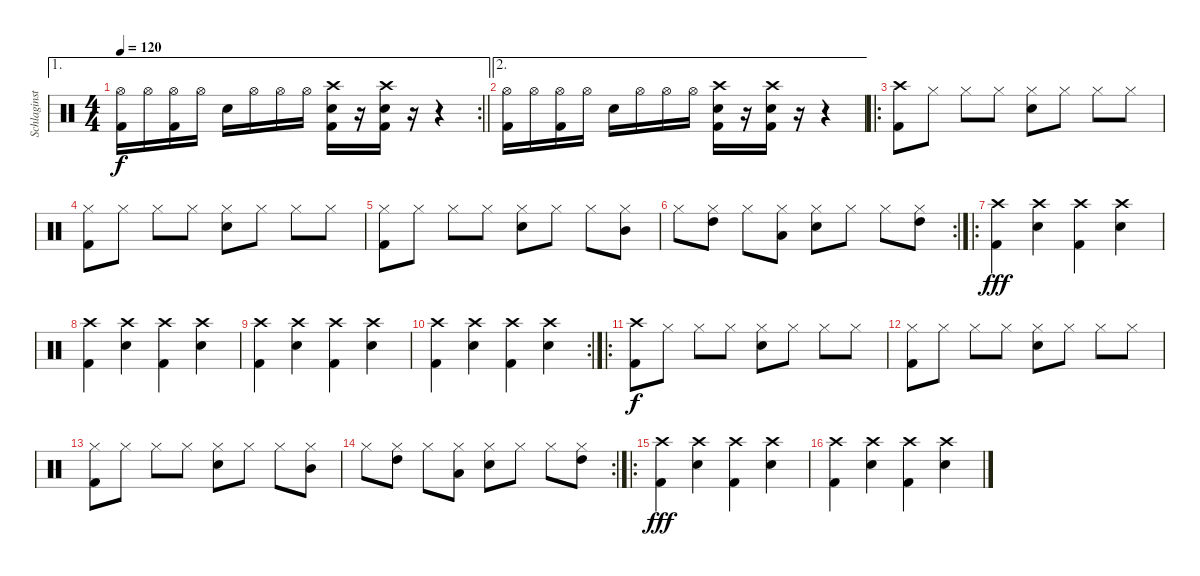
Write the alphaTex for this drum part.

\track ("Schlaginstrumente - Auswahl" "Schlaginst") {instrument percussion}
\staff {score}
\articulation defaults
\ae 1
\rc 2
\ts (4 4)
\tempo 120
\clef neutral
\barLineRight lightlight
\ks c
("Hi-Hat (open)" "Kick (hit) 2").16{dy f} "Hi-Hat (open)".16 ("Hi-Hat (open)" "Kick (hit) 2").16 "Hi-Hat (open)".16 "Electric Snare (hit)".16 "Hi-Hat (open)".16 "Hi-Hat (open)".16 "Hi-Hat (open)".16 ("Crash high (hit)" "Electric Snare (hit)" "Kick (hit) 2").16 r.16 ("Crash high (hit)" "Electric Snare (hit)" "Kick (hit) 2").16 r.16 r.4 |
\ae 2
("Hi-Hat (open)" "Kick (hit) 2").16 "Hi-Hat (open)".16 ("Hi-Hat (open)" "Kick (hit) 2").16 "Hi-Hat (open)".16 "Electric Snare (hit)".16 "Hi-Hat (open)".16 "Hi-Hat (open)".16 "Hi-Hat (open)".16 ("Crash high (hit)" "Electric Snare (hit)" "Kick (hit) 2").16 r.16 ("Crash high (hit)" "Electric Snare (hit)" "Kick (hit) 2").16 r.16 r.4 |
\ro
("Crash high (hit)" "Kick (hit) 2").8 "Hi-Hat (closed)".8 "Hi-Hat (closed)".8 "Hi-Hat (closed)".8 ("Hi-Hat (closed)" "Electric Snare (hit)").8 "Hi-Hat (closed)".8 "Hi-Hat (closed)".8 "Hi-Hat (closed)".8 |
("Hi-Hat (closed)" "Kick (hit) 2").8 "Hi-Hat (closed)".8 "Hi-Hat (closed)".8 "Hi-Hat (closed)".8 ("Hi-Hat (closed)" "Electric Snare (hit)").8 "Hi-Hat (closed)".8 "Hi-Hat (closed)".8 "Hi-Hat (closed)".8 |
("Hi-Hat (closed)" "Kick (hit) 2").8 "Hi-Hat (closed)".8 "Hi-Hat (closed)".8 "Hi-Hat (closed)".8 ("Hi-Hat (closed)" "Electric Snare (hit)").8 "Hi-Hat (closed)".8 "Hi-Hat (closed)".8 ("Hi-Hat (closed)" "Mid Tom (hit)").8 |
\rc 2 "Hi-Hat (closed)".8
("Hi-Hat (closed)" "High Tom (hit)").8 "Hi-Hat (closed)".8 ("Hi-Hat (closed)" "Low Tom (hit)").8 ("Hi-Hat (closed)" "Electric Snare (hit)").8 "Hi-Hat (closed)".8 "Hi-Hat (closed)".8 ("Hi-Hat (closed)" "High Tom (hit)").8 |
\ro
("Crash high (hit)" "Kick (hit) 2").4{dy fff volume 16} ("Crash high (hit)" "Electric Snare (hit)").4 ("Crash high (hit)" "Kick (hit) 2").4 ("Crash high (hit)" "Electric Snare (hit)").4 |
("Crash high (hit)" "Kick (hit) 2").4 ("Crash high (hit)" "Electric Snare (hit)").4 ("Crash high (hit)" "Kick (hit) 2").4 ("Crash high (hit)" "Electric Snare (hit)").4 |
("Crash high (hit)" "Kick (hit) 2").4 ("Crash high (hit)" "Electric Snare (hit)").4 ("Crash high (hit)" "Kick (hit) 2").4 ("Crash high (hit)" "Electric Snare (hit)").4 |
\rc 2
("Crash high (hit)" "Kick (hit) 2").4 ("Crash high (hit)" "Electric Snare (hit)").4 ("Crash high (hit)" "Kick (hit) 2").4 ("Crash high (hit)" "Electric Snare (hit)").4 |
\ro
("Crash high (hit)" "Kick (hit) 2").8{dy f} "Hi-Hat (closed)".8 "Hi-Hat (closed)".8 "Hi-Hat (closed)".8 ("Hi-Hat (closed)" "Electric Snare (hit)").8 "Hi-Hat (closed)".8 "Hi-Hat (closed)".8 "Hi-Hat (closed)".8 |
("Hi-Hat (closed)" "Kick (hit) 2").8 "Hi-Hat (closed)".8 "Hi-Hat (closed)".8 "Hi-Hat (closed)".8 ("Hi-Hat (closed)" "Electric Snare (hit)").8 "Hi-Hat (closed)".8 "Hi-Hat (closed)".8 "Hi-Hat (closed)".8 |
("Hi-Hat (closed)" "Kick (hit) 2").8 "Hi-Hat (closed)".8 "Hi-Hat (closed)".8 "Hi-Hat (closed)".8 ("Hi-Hat (closed)" "Electric Snare (hit)").8 "Hi-Hat (closed)".8 "Hi-Hat (closed)".8 ("Hi-Hat (closed)" "Mid Tom (hit)").8 |
\rc 2 "Hi-Hat (closed)".8
("Hi-Hat (closed)" "High Tom (hit)").8 "Hi-Hat (closed)".8 ("Hi-Hat (closed)" "Low Tom (hit)").8 ("Hi-Hat (closed)" "Electric Snare (hit)").8 "Hi-Hat (closed)".8 "Hi-Hat (closed)".8 ("Hi-Hat (closed)" "High Tom (hit)").8 |
\ro
("Crash high (hit)" "Kick (hit) 2").4{dy fff volume 16} ("Crash high (hit)" "Electric Snare (hit)").4 ("Crash high (hit)" "Kick (hit) 2").4 ("Crash high (hit)" "Electric Snare (hit)").4 |
("Crash high (hit)" "Kick (hit) 2").4 ("Crash high (hit)" "Electric Snare (hit)").4 ("Crash high (hit)" "Kick (hit) 2").4 ("Crash high (hit)" "Electric Snare (hit)").4
